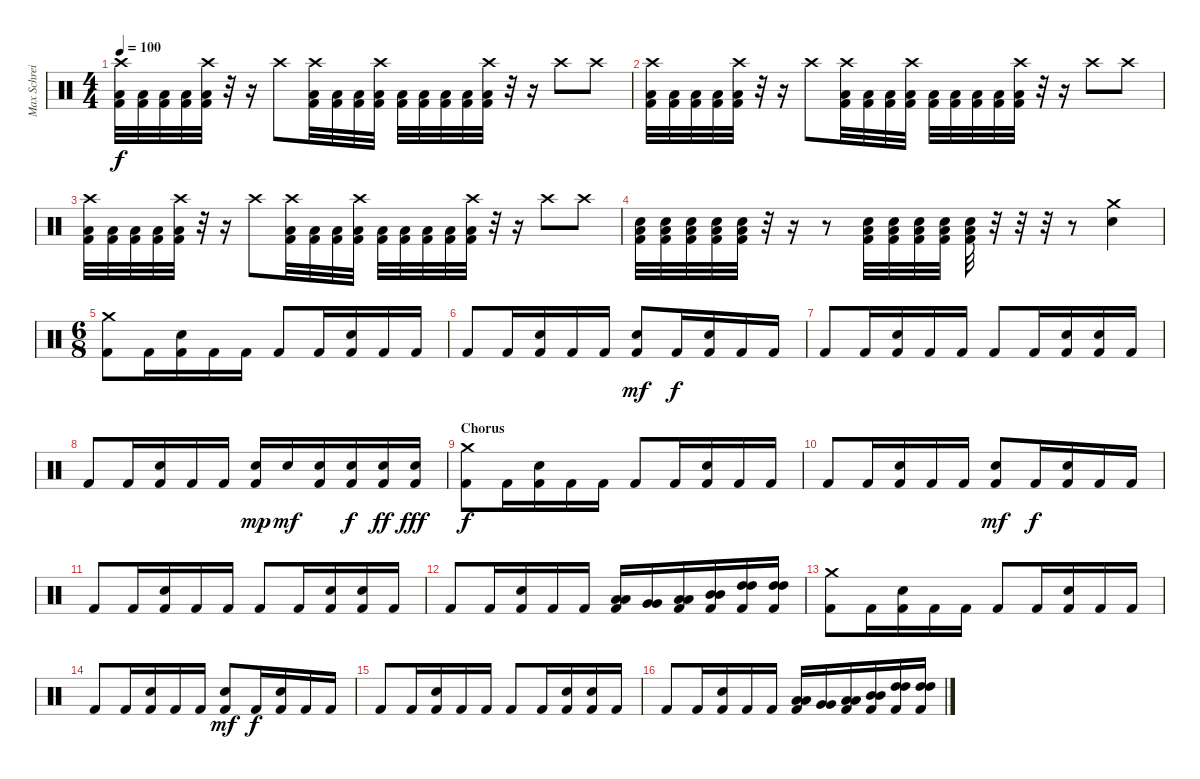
\track ("Max Schreiber " "Max Schrei") {instrument percussion}
\staff {score}
\articulation defaults
\ts (4 4)
\tempo 100
\clef neutral
\ks c
("Crash high (hit)" "Low Floor Tom (hit)" "Kick (hit) 2").32{dy f} ("Low Floor Tom (hit)" "Kick (hit) 2").32 ("Low Floor Tom (hit)" "Kick (hit) 2").32 ("Low Floor Tom (hit)" "Kick (hit) 2").32 ("Crash high (hit)" "Low Floor Tom (hit)" "Kick (hit) 2").32 r.32 r.16 "Crash high (hit)".8 ("Crash high (hit)" "Low Floor Tom (hit)" "Kick (hit) 2").32 ("Low Floor Tom (hit)" "Kick (hit) 2").32 ("Low Floor Tom (hit)" "Kick (hit) 2").32 ("Crash high (hit)" "Low Floor Tom (hit)" "Kick (hit) 2").32 ("Low Floor Tom (hit)" "Kick (hit) 2").32 ("Low Floor Tom (hit)" "Kick (hit) 2").32 ("Low Floor Tom (hit)" "Kick (hit) 2").32 ("Low Floor Tom (hit)" "Kick (hit) 2").32 ("Crash high (hit)" "Low Floor Tom (hit)" "Kick (hit) 2").32 r.32 r.16 "Crash high (hit)".8 "Crash high (hit)".8 |
("Crash high (hit)" "Low Floor Tom (hit)" "Kick (hit) 2").32 ("Low Floor Tom (hit)" "Kick (hit) 2").32 ("Low Floor Tom (hit)" "Kick (hit) 2").32 ("Low Floor Tom (hit)" "Kick (hit) 2").32 ("Crash high (hit)" "Low Floor Tom (hit)" "Kick (hit) 2").32 r.32 r.16 "Crash high (hit)".8 ("Crash high (hit)" "Low Floor Tom (hit)" "Kick (hit) 2").32 ("Low Floor Tom (hit)" "Kick (hit) 2").32 ("Low Floor Tom (hit)" "Kick (hit) 2").32 ("Crash high (hit)" "Low Floor Tom (hit)" "Kick (hit) 2").32 ("Low Floor Tom (hit)" "Kick (hit) 2").32 ("Low Floor Tom (hit)" "Kick (hit) 2").32 ("Low Floor Tom (hit)" "Kick (hit) 2").32 ("Low Floor Tom (hit)" "Kick (hit) 2").32 ("Crash high (hit)" "Low Floor Tom (hit)" "Kick (hit) 2").32 r.32 r.16 "Crash high (hit)".8 "Crash high (hit)".8 |
("Crash high (hit)" "Low Floor Tom (hit)" "Kick (hit) 2").32 ("Low Floor Tom (hit)" "Kick (hit) 2").32 ("Low Floor Tom (hit)" "Kick (hit) 2").32 ("Low Floor Tom (hit)" "Kick (hit) 2").32 ("Crash high (hit)" "Low Floor Tom (hit)" "Kick (hit) 2").32 r.32 r.16 "Crash high (hit)".8 ("Crash high (hit)" "Low Floor Tom (hit)" "Kick (hit) 2").32 ("Low Floor Tom (hit)" "Kick (hit) 2").32 ("Low Floor Tom (hit)" "Kick (hit) 2").32 ("Crash high (hit)" "Low Floor Tom (hit)" "Kick (hit) 2").32 ("Low Floor Tom (hit)" "Kick (hit) 2").32 ("Low Floor Tom (hit)" "Kick (hit) 2").32 ("Low Floor Tom (hit)" "Kick (hit) 2").32 ("Low Floor Tom (hit)" "Kick (hit) 2").32 ("Crash high (hit)" "Low Floor Tom (hit)" "Kick (hit) 2").32 r.32 r.16 "Crash high (hit)".8 "Crash high (hit)".8 |
("Electric Snare (hit)" "Low Floor Tom (hit)" "Kick (hit) 2").32 ("Electric Snare (hit)" "Low Floor Tom (hit)" "Kick (hit) 2").32 ("Electric Snare (hit)" "Low Floor Tom (hit)" "Kick (hit) 2").32 ("Electric Snare (hit)" "Low Floor Tom (hit)" "Kick (hit) 2").32 ("Electric Snare (hit)" "Low Floor Tom (hit)" "Kick (hit) 2").32 r.32 r.16 r.8 ("Electric Snare (hit)" "Low Floor Tom (hit)" "Kick (hit) 2").32 ("Electric Snare (hit)" "Low Floor Tom (hit)" "Kick (hit) 2").32 ("Electric Snare (hit)" "Low Floor Tom (hit)" "Kick (hit) 2").32 ("Electric Snare (hit)" "Low Floor Tom (hit)" "Kick (hit) 2").32 ("Electric Snare (hit)" "Low Floor Tom (hit)" "Kick (hit) 2").32 r.32 r.32 r.32 r.8 ("Crash medium (hit)" "Electric Snare (hit)").4 |
\ts (6 8)
("Crash medium (hit)" "Kick (hit) 2").8 "Kick (hit) 2".16 ("Electric Snare (hit)" "Kick (hit) 2").16 "Kick (hit) 2".16 "Kick (hit) 2".16 "Kick (hit) 2".8 "Kick (hit) 2".16 ("Electric Snare (hit)" "Kick (hit) 2").16 "Kick (hit) 2".16 "Kick (hit) 2".16 |
"Kick (hit) 2".8 "Kick (hit) 2".16 ("Electric Snare (hit)" "Kick (hit) 2").16 "Kick (hit) 2".16 "Kick (hit) 2".16 ("Electric Snare (hit)" "Kick (hit) 2").8{dy mf} "Kick (hit) 2".16{dy f} ("Electric Snare (hit)" "Kick (hit) 2").16 "Kick (hit) 2".16 "Kick (hit) 2".16 |
"Kick (hit) 2".8 "Kick (hit) 2".16 ("Electric Snare (hit)" "Kick (hit) 2").16 "Kick (hit) 2".16 "Kick (hit) 2".16 "Kick (hit) 2".8 "Kick (hit) 2".16 ("Electric Snare (hit)" "Kick (hit) 2").16 ("Electric Snare (hit)" "Kick (hit) 2").16 "Kick (hit) 2".16 |
"Kick (hit) 2".8 "Kick (hit) 2".16 ("Electric Snare (hit)" "Kick (hit) 2").16 "Kick (hit) 2".16 "Kick (hit) 2".16 ("Electric Snare (hit)" "Kick (hit) 2").16{dy mp} "Electric Snare (hit)".16{dy mf} ("Electric Snare (hit)" "Kick (hit) 2").16 ("Electric Snare (hit)" "Kick (hit) 2").16{dy f} ("Electric Snare (hit)" "Kick (hit) 2").16{dy ff} ("Electric Snare (hit)" "Kick (hit) 2").16{dy fff} |
\section ("" "Chorus")
("Crash medium (hit)" "Kick (hit) 2").8{dy f} "Kick (hit) 2".16 ("Electric Snare (hit)" "Kick (hit) 2").16 "Kick (hit) 2".16 "Kick (hit) 2".16 "Kick (hit) 2".8 "Kick (hit) 2".16 ("Electric Snare (hit)" "Kick (hit) 2").16 "Kick (hit) 2".16 "Kick (hit) 2".16 |
"Kick (hit) 2".8 "Kick (hit) 2".16 ("Electric Snare (hit)" "Kick (hit) 2").16 "Kick (hit) 2".16 "Kick (hit) 2".16 ("Electric Snare (hit)" "Kick (hit) 2").8{dy mf} "Kick (hit) 2".16{dy f} ("Electric Snare (hit)" "Kick (hit) 2").16 "Kick (hit) 2".16 "Kick (hit) 2".16 |
"Kick (hit) 2".8 "Kick (hit) 2".16 ("Electric Snare (hit)" "Kick (hit) 2").16 "Kick (hit) 2".16 "Kick (hit) 2".16 "Kick (hit) 2".8 "Kick (hit) 2".16 ("Electric Snare (hit)" "Kick (hit) 2").16 ("Electric Snare (hit)" "Kick (hit) 2").16 "Kick (hit) 2".16 |
"Kick (hit) 2".8 "Kick (hit) 2".16 ("Electric Snare (hit)" "Kick (hit) 2").16 "Kick (hit) 2".16 "Kick (hit) 2".16 ("Low Floor Tom (hit)" "Low Floor Tom (hit)" "Kick (hit) 2").16 ("Very Low Tom (hit)" "Very Low Tom (hit)").16 ("Low Tom (hit)" "Low Tom (hit)" "Kick (hit) 2").16 ("Mid Tom (hit)" "Mid Tom (hit)" "Kick (hit) 2").16 ("High Tom (hit)" "High Tom (hit)" "Kick (hit) 2").16 ("High Tom (hit)" "High Tom (hit)" "Kick (hit) 2").16 |
("Crash medium (hit)" "Kick (hit) 2").8 "Kick (hit) 2".16 ("Electric Snare (hit)" "Kick (hit) 2").16 "Kick (hit) 2".16 "Kick (hit) 2".16 "Kick (hit) 2".8 "Kick (hit) 2".16 ("Electric Snare (hit)" "Kick (hit) 2").16 "Kick (hit) 2".16 "Kick (hit) 2".16 |
"Kick (hit) 2".8 "Kick (hit) 2".16 ("Electric Snare (hit)" "Kick (hit) 2").16 "Kick (hit) 2".16 "Kick (hit) 2".16 ("Electric Snare (hit)" "Kick (hit) 2").8{dy mf} "Kick (hit) 2".16{dy f} ("Electric Snare (hit)" "Kick (hit) 2").16 "Kick (hit) 2".16 "Kick (hit) 2".16 |
"Kick (hit) 2".8 "Kick (hit) 2".16 ("Electric Snare (hit)" "Kick (hit) 2").16 "Kick (hit) 2".16 "Kick (hit) 2".16 "Kick (hit) 2".8 "Kick (hit) 2".16 ("Electric Snare (hit)" "Kick (hit) 2").16 ("Electric Snare (hit)" "Kick (hit) 2").16 "Kick (hit) 2".16 |
"Kick (hit) 2".8 "Kick (hit) 2".16 ("Electric Snare (hit)" "Kick (hit) 2").16 "Kick (hit) 2".16 "Kick (hit) 2".16 ("Low Floor Tom (hit)" "Low Floor Tom (hit)" "Kick (hit) 2").16 ("Very Low Tom (hit)" "Very Low Tom (hit)").16 ("Low Tom (hit)" "Low Tom (hit)" "Kick (hit) 2").16 ("Mid Tom (hit)" "Mid Tom (hit)" "Kick (hit) 2").16 ("High Tom (hit)" "High Tom (hit)" "Kick (hit) 2").16 ("High Tom (hit)" "High Tom (hit)" "Kick (hit) 2").16
